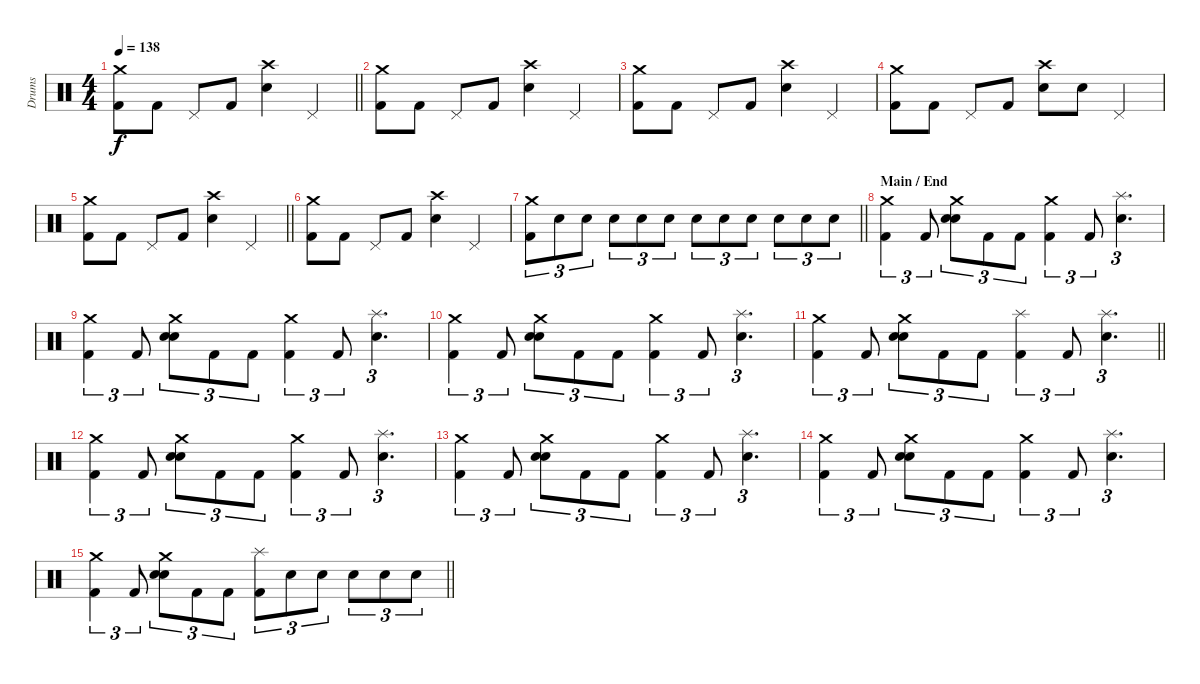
\track ("Drums" "Drums") {instrument percussion}
\staff {score}
\articulation defaults
\ts (4 4)
\section ("" "")
\tempo 138
\clef neutral
\barLineRight lightlight
\ks c
("Kick (hit) 2" "Crash medium (hit)").8{dy f} "Kick (hit) 2".8 "Pedal Hi-Hat (hit)".8 "Kick (hit) 2".8 ("Snare (hit) 2" "Crash high (hit)").4 "Pedal Hi-Hat (hit)".4 |
\section ("" "")
("Kick (hit) 2" "Crash medium (hit)").8 "Kick (hit) 2".8 "Pedal Hi-Hat (hit)".8 "Kick (hit) 2".8 ("Snare (hit) 2" "Crash high (hit)").4 "Pedal Hi-Hat (hit)".4 |
("Kick (hit) 2" "Crash medium (hit)").8 "Kick (hit) 2".8 "Pedal Hi-Hat (hit)".8 "Kick (hit) 2".8 ("Snare (hit) 2" "Crash high (hit)").4 "Pedal Hi-Hat (hit)".4 |
("Kick (hit) 2" "Crash medium (hit)").8 "Kick (hit) 2".8 "Pedal Hi-Hat (hit)".8 "Kick (hit) 2".8 ("Snare (hit) 2" "Crash high (hit)").8 "Snare (hit) 2".8 "Pedal Hi-Hat (hit)".4 |
\barLineRight lightlight
("Kick (hit) 2" "Crash medium (hit)").8 "Kick (hit) 2".8 "Pedal Hi-Hat (hit)".8 "Kick (hit) 2".8 ("Snare (hit) 2" "Crash high (hit)").4 "Pedal Hi-Hat (hit)".4 |
\section ("" "")
("Kick (hit) 2" "Crash medium (hit)").8 "Kick (hit) 2".8 "Pedal Hi-Hat (hit)".8 "Kick (hit) 2".8 ("Snare (hit) 2" "Crash high (hit)").4 "Pedal Hi-Hat (hit)".4 |
\barLineRight lightlight
("Kick (hit) 2" "Crash medium (hit)").8{tu (3 2)} "Snare (hit) 2".8{tu (3 2)} "Snare (hit) 2".8{tu (3 2)} "Snare (hit) 2".8{tu (3 2)} "Snare (hit) 2".8{tu (3 2)} "Snare (hit) 2".8{tu (3 2)} "Snare (hit) 2".8{tu (3 2)} "Snare (hit) 2".8{tu (3 2)} "Snare (hit) 2".8{tu (3 2)} "Snare (hit) 2".8{tu (3 2)} "Snare (hit) 2".8{tu (3 2)} "Snare (hit) 2".8{tu (3 2)} |
\section ("" "Main / End")
("Kick (hit) 2" "Crash medium (hit)").4{tu (3 2)} "Kick (hit) 2".8{tu (3 2)} ("Snare (hit) 2" "Snare (hit) 2" "Crash medium (hit)").8{tu (3 2)} "Kick (hit) 2".8{tu (3 2)} "Kick (hit) 2".8{tu (3 2)} ("Kick (hit) 2" "Crash medium (hit)").4{tu (3 2)} "Kick (hit) 2".8{tu (3 2)} ("Snare (hit) 2" "Splash (hit)").4{d tu (3 2)} |
("Kick (hit) 2" "Crash medium (hit)").4{tu (3 2)} "Kick (hit) 2".8{tu (3 2)} ("Snare (hit) 2" "Snare (hit) 2" "Crash medium (hit)").8{tu (3 2)} "Kick (hit) 2".8{tu (3 2)} "Kick (hit) 2".8{tu (3 2)} ("Kick (hit) 2" "Crash medium (hit)").4{tu (3 2)} "Kick (hit) 2".8{tu (3 2)} ("Snare (hit) 2" "Splash (hit)").4{d tu (3 2)} |
("Kick (hit) 2" "Crash medium (hit)").4{tu (3 2)} "Kick (hit) 2".8{tu (3 2)} ("Snare (hit) 2" "Snare (hit) 2" "Crash medium (hit)").8{tu (3 2)} "Kick (hit) 2".8{tu (3 2)} "Kick (hit) 2".8{tu (3 2)} ("Kick (hit) 2" "Crash medium (hit)").4{tu (3 2)} "Kick (hit) 2".8{tu (3 2)} ("Snare (hit) 2" "Splash (hit)").4{d tu (3 2)} |
\barLineRight lightlight
("Kick (hit) 2" "Crash medium (hit)").4{tu (3 2)} "Kick (hit) 2".8{tu (3 2)} ("Snare (hit) 2" "Snare (hit) 2" "Crash medium (hit)").8{tu (3 2)} "Kick (hit) 2".8{tu (3 2)} "Kick (hit) 2".8{tu (3 2)} ("Kick (hit) 2" "Splash (hit)").4{tu (3 2)} "Kick (hit) 2".8{tu (3 2)} ("Snare (hit) 2" "Splash (hit)").4{d tu (3 2)} |
\section ("" "")
("Kick (hit) 2" "Crash medium (hit)").4{tu (3 2)} "Kick (hit) 2".8{tu (3 2)} ("Snare (hit) 2" "Snare (hit) 2" "Crash medium (hit)").8{tu (3 2)} "Kick (hit) 2".8{tu (3 2)} "Kick (hit) 2".8{tu (3 2)} ("Kick (hit) 2" "Crash medium (hit)").4{tu (3 2)} "Kick (hit) 2".8{tu (3 2)} ("Snare (hit) 2" "Splash (hit)").4{d tu (3 2)} |
("Kick (hit) 2" "Crash medium (hit)").4{tu (3 2)} "Kick (hit) 2".8{tu (3 2)} ("Snare (hit) 2" "Snare (hit) 2" "Crash medium (hit)").8{tu (3 2)} "Kick (hit) 2".8{tu (3 2)} "Kick (hit) 2".8{tu (3 2)} ("Kick (hit) 2" "Crash medium (hit)").4{tu (3 2)} "Kick (hit) 2".8{tu (3 2)} ("Snare (hit) 2" "Splash (hit)").4{d tu (3 2)} |
("Kick (hit) 2" "Crash medium (hit)").4{tu (3 2)} "Kick (hit) 2".8{tu (3 2)} ("Snare (hit) 2" "Snare (hit) 2" "Crash medium (hit)").8{tu (3 2)} "Kick (hit) 2".8{tu (3 2)} "Kick (hit) 2".8{tu (3 2)} ("Kick (hit) 2" "Crash medium (hit)").4{tu (3 2)} "Kick (hit) 2".8{tu (3 2)} ("Snare (hit) 2" "Splash (hit)").4{d tu (3 2)} |
\barLineRight lightlight
("Kick (hit) 2" "Crash medium (hit)").4{tu (3 2)} "Kick (hit) 2".8{tu (3 2)} ("Snare (hit) 2" "Snare (hit) 2" "Crash medium (hit)").8{tu (3 2)} "Kick (hit) 2".8{tu (3 2)} "Kick (hit) 2".8{tu (3 2)} ("Kick (hit) 2" "Splash (hit)").8{tu (3 2)} "Snare (hit) 2".8{tu (3 2)} "Snare (hit) 2".8{tu (3 2)} "Snare (hit) 2".8{tu (3 2)} "Snare (hit) 2".8{tu (3 2)} "Snare (hit) 2".8{tu (3 2)}
